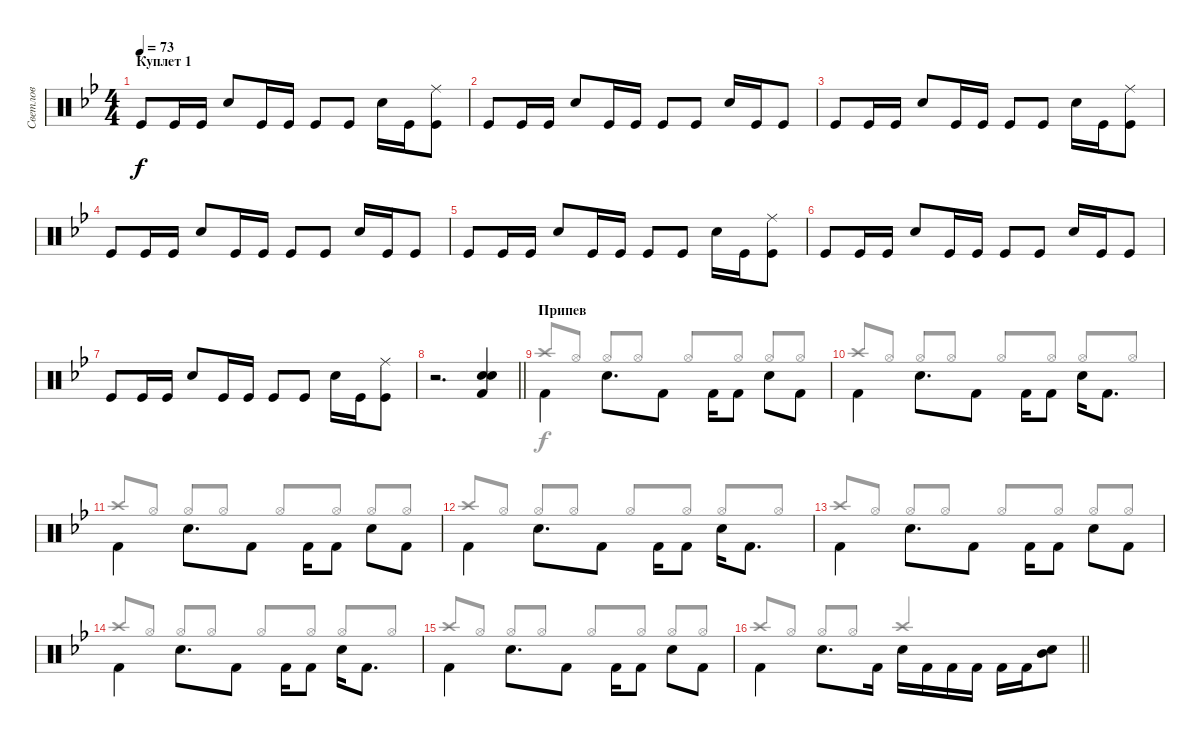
\track ("Светлов" "Светлов") {instrument percussion}
\staff {score}
\articulation defaults
\voice
\ts (4 4)
\section ("" "Куплет 1")
\tempo 73
\clef neutral
\ks gminor "Kick (hit)".8{dy f} "Kick (hit)".16 "Kick (hit)".16 "Snare (hit) 2".8 "Kick (hit)".16 "Kick (hit)".16 "Kick (hit)".8 "Kick (hit)".8 "Snare (hit) 2".16 "Kick (hit)".16
("Ride (middle)" "Kick (hit)").8 |
"Kick (hit)".8 "Kick (hit)".16 "Kick (hit)".16 "Snare (hit) 2".8 "Kick (hit)".16 "Kick (hit)".16 "Kick (hit)".8 "Kick (hit)".8 "Snare (hit) 2".16 "Kick (hit)".16 "Kick (hit)".8 |
"Kick (hit)".8 "Kick (hit)".16 "Kick (hit)".16 "Snare (hit) 2".8 "Kick (hit)".16 "Kick (hit)".16 "Kick (hit)".8 "Kick (hit)".8 "Snare (hit) 2".16 "Kick (hit)".16 ("Ride (middle)" "Kick (hit)").8 |
"Kick (hit)".8 "Kick (hit)".16 "Kick (hit)".16 "Snare (hit) 2".8 "Kick (hit)".16 "Kick (hit)".16 "Kick (hit)".8 "Kick (hit)".8 "Snare (hit) 2".16 "Kick (hit)".16 "Kick (hit)".8 |
"Kick (hit)".8 "Kick (hit)".16 "Kick (hit)".16 "Snare (hit) 2".8 "Kick (hit)".16 "Kick (hit)".16 "Kick (hit)".8 "Kick (hit)".8 "Snare (hit) 2".16 "Kick (hit)".16 ("Ride (middle)" "Kick (hit)").8 |
"Kick (hit)".8 "Kick (hit)".16 "Kick (hit)".16 "Snare (hit) 2".8 "Kick (hit)".16 "Kick (hit)".16 "Kick (hit)".8 "Kick (hit)".8 "Snare (hit) 2".16 "Kick (hit)".16 "Kick (hit)".8 |
"Kick (hit)".8 "Kick (hit)".16 "Kick (hit)".16 "Snare (hit) 2".8 "Kick (hit)".16 "Kick (hit)".16 "Kick (hit)".8 "Kick (hit)".8 "Snare (hit) 2".16 "Kick (hit)".16 ("Ride (middle)" "Kick (hit)").8 |
\barLineRight lightlight
r.2{d} ("Snare (hit) 2" "Electric Snare (hit)" "Kick (hit) 2").4 |
\section ("" "Припев")
"Kick (hit) 2".4{beam Down} "Electric Snare (hit)".8{d beam Down} "Kick (hit) 2".8{beam Down} "Kick (hit) 2".16{beam Down} "Kick (hit) 2".8{beam Down} "Electric Snare (hit)".8{beam Down} "Kick (hit) 2".8{beam Down} |
"Kick (hit) 2".4{beam Down} "Electric Snare (hit)".8{d beam Down} "Kick (hit) 2".8{beam Down} "Kick (hit) 2".16{beam Down} "Kick (hit) 2".8{beam Down} "Electric Snare (hit)".16{beam Down} "Kick (hit) 2".8{d beam Down} |
"Kick (hit) 2".4{beam Down} "Electric Snare (hit)".8{d beam Down} "Kick (hit) 2".8{beam Down} "Kick (hit) 2".16{beam Down} "Kick (hit) 2".8{beam Down} "Electric Snare (hit)".8{beam Down} "Kick (hit) 2".8{beam Down} |
"Kick (hit) 2".4{beam Down} "Electric Snare (hit)".8{d beam Down} "Kick (hit) 2".8{beam Down} "Kick (hit) 2".16{beam Down} "Kick (hit) 2".8{beam Down} "Electric Snare (hit)".16{beam Down} "Kick (hit) 2".8{d beam Down} |
"Kick (hit) 2".4{beam Down} "Electric Snare (hit)".8{d beam Down} "Kick (hit) 2".8{beam Down} "Kick (hit) 2".16{beam Down} "Kick (hit) 2".8{beam Down} "Electric Snare (hit)".8{beam Down} "Kick (hit) 2".8{beam Down} |
"Kick (hit) 2".4{beam Down} "Electric Snare (hit)".8{d beam Down} "Kick (hit) 2".8{beam Down} "Kick (hit) 2".16{beam Down} "Kick (hit) 2".8{beam Down} "Electric Snare (hit)".16{beam Down} "Kick (hit) 2".8{d beam Down} |
"Kick (hit) 2".4{beam Down} "Electric Snare (hit)".8{d beam Down} "Kick (hit) 2".8{beam Down} "Kick (hit) 2".16{beam Down} "Kick (hit) 2".8{beam Down} "Electric Snare (hit)".8{beam Down} "Kick (hit) 2".8{beam Down} |
\barLineRight lightlight "Kick (hit) 2".4{beam Down} "Electric Snare (hit)".8{d beam Down} "Kick (hit) 2".16{beam Down} "Electric Snare (hit)".16{beam Down} "Kick (hit) 2".16{beam Down} "Kick (hit) 2".16{beam Down} "Kick (hit) 2".16{beam Down} "Kick (hit) 2".16{beam Down} "Kick (hit) 2".16{beam Down}
("Electric Snare (hit)" "Mid Tom (hit)").8{beam Down}
\voice
\clef neutral
\ottava regular
\simile none
\ks gminor
|
|
|
|
|
|
|
\barLineRight lightlight
|
"Crash high (hit)".8{beam Up} "Hi-Hat (open)".8{beam Up} "Hi-Hat (open)".8{beam Up} "Hi-Hat (open)".8{beam Up} "Hi-Hat (open)".8{beam Up} "Hi-Hat (open)".8{beam Up} "Hi-Hat (open)".8{beam Up} "Hi-Hat (open)".8{beam Up} |
"Crash high (hit)".8{beam Up} "Hi-Hat (open)".8{beam Up} "Hi-Hat (open)".8{beam Up} "Hi-Hat (open)".8{beam Up} "Hi-Hat (open)".8{beam Up} "Hi-Hat (open)".8{beam Up} "Hi-Hat (open)".8{beam Up} "Hi-Hat (open)".8{beam Up} |
"Crash high (hit)".8{beam Up} "Hi-Hat (open)".8{beam Up} "Hi-Hat (open)".8{beam Up} "Hi-Hat (open)".8{beam Up} "Hi-Hat (open)".8{beam Up} "Hi-Hat (open)".8{beam Up} "Hi-Hat (open)".8{beam Up} "Hi-Hat (open)".8{beam Up} |
"Crash high (hit)".8{beam Up} "Hi-Hat (open)".8{beam Up} "Hi-Hat (open)".8{beam Up} "Hi-Hat (open)".8{beam Up} "Hi-Hat (open)".8{beam Up} "Hi-Hat (open)".8{beam Up} "Hi-Hat (open)".8{beam Up} "Hi-Hat (open)".8{beam Up} |
"Crash high (hit)".8{beam Up} "Hi-Hat (open)".8{beam Up} "Hi-Hat (open)".8{beam Up} "Hi-Hat (open)".8{beam Up} "Hi-Hat (open)".8{beam Up} "Hi-Hat (open)".8{beam Up} "Hi-Hat (open)".8{beam Up} "Hi-Hat (open)".8{beam Up} |
"Crash high (hit)".8{beam Up} "Hi-Hat (open)".8{beam Up} "Hi-Hat (open)".8{beam Up} "Hi-Hat (open)".8{beam Up} "Hi-Hat (open)".8{beam Up} "Hi-Hat (open)".8{beam Up} "Hi-Hat (open)".8{beam Up} "Hi-Hat (open)".8{beam Up} |
"Crash high (hit)".8{beam Up} "Hi-Hat (open)".8{beam Up} "Hi-Hat (open)".8{beam Up} "Hi-Hat (open)".8{beam Up} "Hi-Hat (open)".8{beam Up} "Hi-Hat (open)".8{beam Up} "Hi-Hat (open)".8{beam Up} "Hi-Hat (open)".8{beam Up} |
\barLineRight lightlight "Crash high (hit)".8{beam Up} "Hi-Hat (open)".8{beam Up} "Hi-Hat (open)".8{beam Up} "Hi-Hat (open)".8{beam Up} "Crash high (hit)".2{beam Up}
